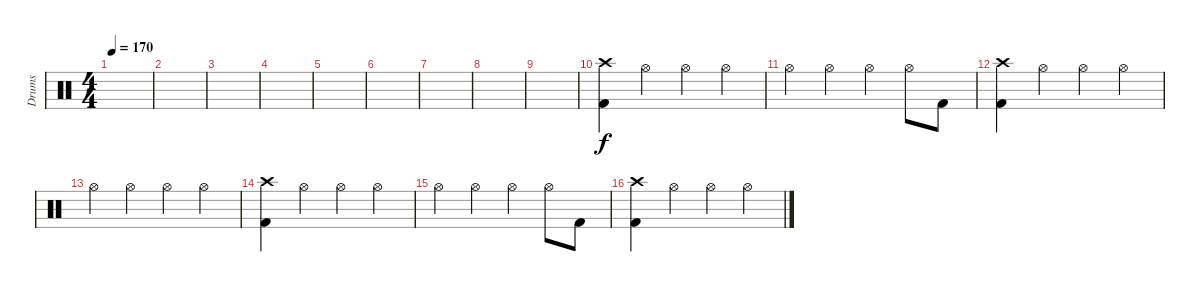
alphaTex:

\track ("Drums" "Drums") {instrument percussion}
\staff {score}
\articulation defaults
\ts (4 4)
\tempo 170
\clef neutral
\ks c
|
|
|
|
|
|
|
|
|
("Crash high (hit)" "Kick (hit) 2").4 "Hi-Hat (open)".4 "Hi-Hat (open)".4 "Hi-Hat (open)".4 |
"Hi-Hat (open)".4 "Hi-Hat (open)".4 "Hi-Hat (open)".4 "Hi-Hat (open)".8 "Kick (hit) 2".8 |
("Crash high (hit)" "Kick (hit) 2").4 "Hi-Hat (open)".4 "Hi-Hat (open)".4 "Hi-Hat (open)".4 |
"Hi-Hat (open)".4 "Hi-Hat (open)".4 "Hi-Hat (open)".4 "Hi-Hat (open)".4 |
("Crash high (hit)" "Kick (hit) 2").4 "Hi-Hat (open)".4 "Hi-Hat (open)".4 "Hi-Hat (open)".4 |
"Hi-Hat (open)".4 "Hi-Hat (open)".4 "Hi-Hat (open)".4 "Hi-Hat (open)".8 "Kick (hit) 2".8 |
("Crash high (hit)" "Kick (hit) 2").4 "Hi-Hat (open)".4 "Hi-Hat (open)".4 "Hi-Hat (open)".4
